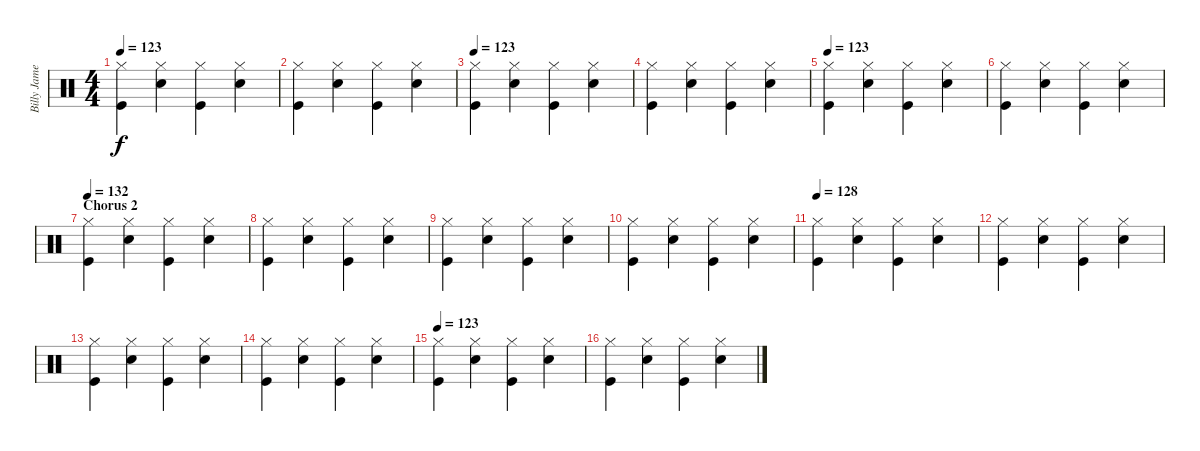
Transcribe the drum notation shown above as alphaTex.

\track ("Billy James (Drums)" "Billy Jame") {instrument percussion}
\staff {score}
\articulation defaults
\ts (4 4)
\tempo 123
\clef neutral
\ks c
("Kick (hit)" "Hi-Hat (closed)").4{dy f} ("Snare (hit) 2" "Hi-Hat (closed)").4 ("Kick (hit)" "Hi-Hat (closed)").4 ("Snare (hit) 2" "Hi-Hat (closed)").4 |
("Kick (hit)" "Hi-Hat (closed)").4 ("Snare (hit) 2" "Hi-Hat (closed)").4 ("Kick (hit)" "Hi-Hat (closed)").4 ("Snare (hit) 2" "Hi-Hat (closed)").4 |
\tempo 123
("Kick (hit)" "Hi-Hat (closed)").4 ("Snare (hit) 2" "Hi-Hat (closed)").4 ("Kick (hit)" "Hi-Hat (closed)").4 ("Snare (hit) 2" "Hi-Hat (closed)").4 |
("Kick (hit)" "Hi-Hat (closed)").4 ("Snare (hit) 2" "Hi-Hat (closed)").4 ("Kick (hit)" "Hi-Hat (closed)").4 ("Snare (hit) 2" "Hi-Hat (closed)").4 |
\tempo 123
("Kick (hit)" "Hi-Hat (closed)").4 ("Snare (hit) 2" "Hi-Hat (closed)").4 ("Kick (hit)" "Hi-Hat (closed)").4 ("Snare (hit) 2" "Hi-Hat (closed)").4 |
("Kick (hit)" "Hi-Hat (closed)").4 ("Snare (hit) 2" "Hi-Hat (closed)").4 ("Kick (hit)" "Hi-Hat (closed)").4 ("Snare (hit) 2" "Hi-Hat (closed)").4 |
\section ("" "Chorus 2")
\tempo 132
("Kick (hit)" "Hi-Hat (closed)").4 ("Snare (hit) 2" "Hi-Hat (closed)").4 ("Kick (hit)" "Hi-Hat (closed)").4 ("Snare (hit) 2" "Hi-Hat (closed)").4 |
("Kick (hit)" "Hi-Hat (closed)").4 ("Snare (hit) 2" "Hi-Hat (closed)").4 ("Kick (hit)" "Hi-Hat (closed)").4 ("Snare (hit) 2" "Hi-Hat (closed)").4 |
("Kick (hit)" "Hi-Hat (closed)").4 ("Snare (hit) 2" "Hi-Hat (closed)").4 ("Kick (hit)" "Hi-Hat (closed)").4 ("Snare (hit) 2" "Hi-Hat (closed)").4 |
("Kick (hit)" "Hi-Hat (closed)").4 ("Snare (hit) 2" "Hi-Hat (closed)").4 ("Kick (hit)" "Hi-Hat (closed)").4 ("Snare (hit) 2" "Hi-Hat (closed)").4 |
\tempo 128
("Kick (hit)" "Hi-Hat (closed)").4 ("Snare (hit) 2" "Hi-Hat (closed)").4 ("Kick (hit)" "Hi-Hat (closed)").4 ("Snare (hit) 2" "Hi-Hat (closed)").4 |
("Kick (hit)" "Hi-Hat (closed)").4 ("Snare (hit) 2" "Hi-Hat (closed)").4 ("Kick (hit)" "Hi-Hat (closed)").4 ("Snare (hit) 2" "Hi-Hat (closed)").4 |
("Kick (hit)" "Hi-Hat (closed)").4 ("Snare (hit) 2" "Hi-Hat (closed)").4 ("Kick (hit)" "Hi-Hat (closed)").4 ("Snare (hit) 2" "Hi-Hat (closed)").4 |
("Kick (hit)" "Hi-Hat (closed)").4 ("Snare (hit) 2" "Hi-Hat (closed)").4 ("Kick (hit)" "Hi-Hat (closed)").4 ("Snare (hit) 2" "Hi-Hat (closed)").4 |
\tempo 123
("Kick (hit)" "Hi-Hat (closed)").4 ("Snare (hit) 2" "Hi-Hat (closed)").4 ("Kick (hit)" "Hi-Hat (closed)").4 ("Snare (hit) 2" "Hi-Hat (closed)").4 |
("Kick (hit)" "Hi-Hat (closed)").4 ("Snare (hit) 2" "Hi-Hat (closed)").4 ("Kick (hit)" "Hi-Hat (closed)").4 ("Snare (hit) 2" "Hi-Hat (closed)").4
